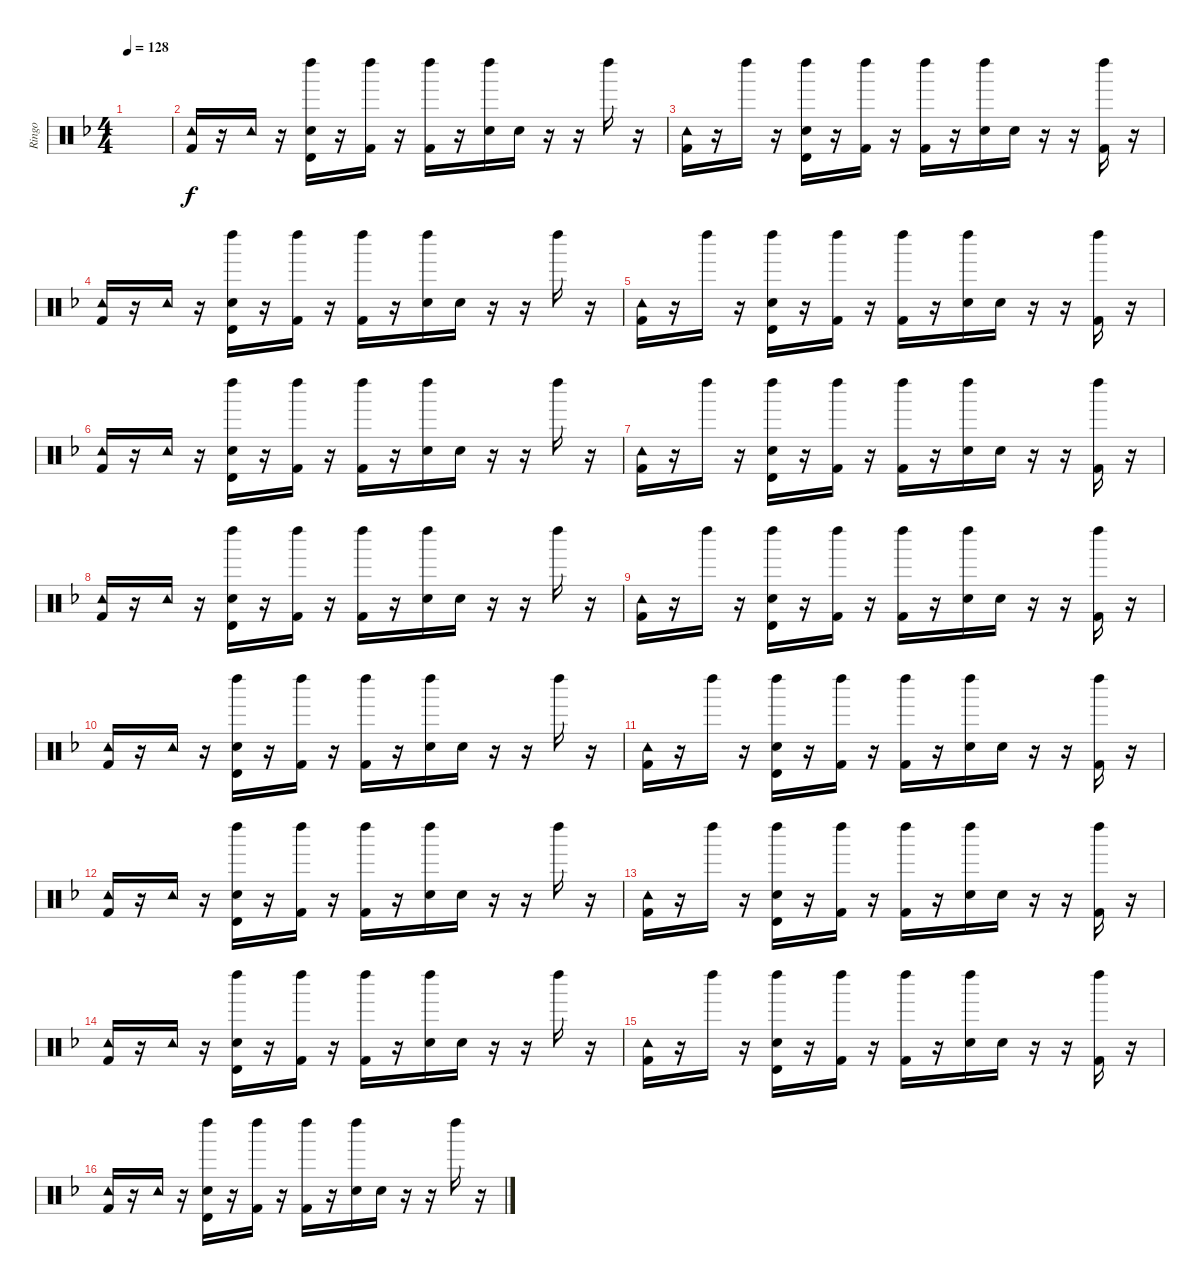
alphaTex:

\track ("Ringo" "Ringo") {instrument percussion}
\staff {score}
\articulation defaults
\ts (4 4)
\tempo 128
\clef neutral
\ks f
|
("Tambourine (hit)" "Kick (hit) 2").16 r.16 "Tambourine (hit)".16 r.16 ("Left Maraca (hit)" "Timbale high (hit)" "Electric Snare (hit)").16 r.16 ("Left Maraca (hit)" "Kick (hit) 2").16 r.16 ("Left Maraca (hit)" "Kick (hit) 2").16 r.16 ("Left Maraca (hit)" "Electric Snare (hit)").16 "Electric Snare (hit)".16 r.16 r.16 "Left Maraca (hit)".16 r.16 |
("Tambourine (hit)" "Kick (hit) 2").16 r.16 "Left Maraca (hit)".16 r.16 ("Left Maraca (hit)" "Timbale high (hit)" "Electric Snare (hit)").16 r.16 ("Left Maraca (hit)" "Kick (hit) 2").16 r.16 ("Left Maraca (hit)" "Kick (hit) 2").16 r.16 ("Left Maraca (hit)" "Electric Snare (hit)").16 "Electric Snare (hit)".16 r.16 r.16 ("Left Maraca (hit)" "Kick (hit) 2").16 r.16 |
("Tambourine (hit)" "Kick (hit) 2").16 r.16 "Tambourine (hit)".16 r.16 ("Left Maraca (hit)" "Timbale high (hit)" "Electric Snare (hit)").16 r.16 ("Left Maraca (hit)" "Kick (hit) 2").16 r.16 ("Left Maraca (hit)" "Kick (hit) 2").16 r.16 ("Left Maraca (hit)" "Electric Snare (hit)").16 "Electric Snare (hit)".16 r.16 r.16 "Left Maraca (hit)".16 r.16 |
("Tambourine (hit)" "Kick (hit) 2").16 r.16 "Left Maraca (hit)".16 r.16 ("Left Maraca (hit)" "Timbale high (hit)" "Electric Snare (hit)").16 r.16 ("Left Maraca (hit)" "Kick (hit) 2").16 r.16 ("Left Maraca (hit)" "Kick (hit) 2").16 r.16 ("Left Maraca (hit)" "Electric Snare (hit)").16 "Electric Snare (hit)".16 r.16 r.16 ("Left Maraca (hit)" "Kick (hit) 2").16 r.16 |
("Tambourine (hit)" "Kick (hit) 2").16 r.16 "Tambourine (hit)".16 r.16 ("Left Maraca (hit)" "Timbale high (hit)" "Electric Snare (hit)").16 r.16 ("Left Maraca (hit)" "Kick (hit) 2").16 r.16 ("Left Maraca (hit)" "Kick (hit) 2").16 r.16 ("Left Maraca (hit)" "Electric Snare (hit)").16 "Electric Snare (hit)".16 r.16 r.16 "Left Maraca (hit)".16 r.16 |
("Tambourine (hit)" "Kick (hit) 2").16 r.16 "Left Maraca (hit)".16 r.16 ("Left Maraca (hit)" "Timbale high (hit)" "Electric Snare (hit)").16 r.16 ("Left Maraca (hit)" "Kick (hit) 2").16 r.16 ("Left Maraca (hit)" "Kick (hit) 2").16 r.16 ("Left Maraca (hit)" "Electric Snare (hit)").16 "Electric Snare (hit)".16 r.16 r.16 ("Left Maraca (hit)" "Kick (hit) 2").16 r.16 |
("Tambourine (hit)" "Kick (hit) 2").16 r.16 "Tambourine (hit)".16 r.16 ("Left Maraca (hit)" "Timbale high (hit)" "Electric Snare (hit)").16 r.16 ("Left Maraca (hit)" "Kick (hit) 2").16 r.16 ("Left Maraca (hit)" "Kick (hit) 2").16 r.16 ("Left Maraca (hit)" "Electric Snare (hit)").16 "Electric Snare (hit)".16 r.16 r.16 "Left Maraca (hit)".16 r.16 |
("Tambourine (hit)" "Kick (hit) 2").16 r.16 "Left Maraca (hit)".16 r.16 ("Left Maraca (hit)" "Timbale high (hit)" "Electric Snare (hit)").16 r.16 ("Left Maraca (hit)" "Kick (hit) 2").16 r.16 ("Left Maraca (hit)" "Kick (hit) 2").16 r.16 ("Left Maraca (hit)" "Electric Snare (hit)").16 "Electric Snare (hit)".16 r.16 r.16 ("Left Maraca (hit)" "Kick (hit) 2").16 r.16 |
("Tambourine (hit)" "Kick (hit) 2").16 r.16 "Tambourine (hit)".16 r.16 ("Left Maraca (hit)" "Timbale high (hit)" "Electric Snare (hit)").16 r.16 ("Left Maraca (hit)" "Kick (hit) 2").16 r.16 ("Left Maraca (hit)" "Kick (hit) 2").16 r.16 ("Left Maraca (hit)" "Electric Snare (hit)").16 "Electric Snare (hit)".16 r.16 r.16 "Left Maraca (hit)".16 r.16 |
("Tambourine (hit)" "Kick (hit) 2").16 r.16 "Left Maraca (hit)".16 r.16 ("Left Maraca (hit)" "Timbale high (hit)" "Electric Snare (hit)").16 r.16 ("Left Maraca (hit)" "Kick (hit) 2").16 r.16 ("Left Maraca (hit)" "Kick (hit) 2").16 r.16 ("Left Maraca (hit)" "Electric Snare (hit)").16 "Electric Snare (hit)".16 r.16 r.16 ("Left Maraca (hit)" "Kick (hit) 2").16 r.16 |
("Tambourine (hit)" "Kick (hit) 2").16 r.16 "Tambourine (hit)".16 r.16 ("Left Maraca (hit)" "Timbale high (hit)" "Electric Snare (hit)").16 r.16 ("Left Maraca (hit)" "Kick (hit) 2").16 r.16 ("Left Maraca (hit)" "Kick (hit) 2").16 r.16 ("Left Maraca (hit)" "Electric Snare (hit)").16 "Electric Snare (hit)".16 r.16 r.16 "Left Maraca (hit)".16 r.16 |
("Tambourine (hit)" "Kick (hit) 2").16 r.16 "Left Maraca (hit)".16 r.16 ("Left Maraca (hit)" "Timbale high (hit)" "Electric Snare (hit)").16 r.16 ("Left Maraca (hit)" "Kick (hit) 2").16 r.16 ("Left Maraca (hit)" "Kick (hit) 2").16 r.16 ("Left Maraca (hit)" "Electric Snare (hit)").16 "Electric Snare (hit)".16 r.16 r.16 ("Left Maraca (hit)" "Kick (hit) 2").16 r.16 |
("Tambourine (hit)" "Kick (hit) 2").16 r.16 "Tambourine (hit)".16 r.16 ("Left Maraca (hit)" "Timbale high (hit)" "Electric Snare (hit)").16 r.16 ("Left Maraca (hit)" "Kick (hit) 2").16 r.16 ("Left Maraca (hit)" "Kick (hit) 2").16 r.16 ("Left Maraca (hit)" "Electric Snare (hit)").16 "Electric Snare (hit)".16 r.16 r.16 "Left Maraca (hit)".16 r.16 |
("Tambourine (hit)" "Kick (hit) 2").16 r.16 "Left Maraca (hit)".16 r.16 ("Left Maraca (hit)" "Timbale high (hit)" "Electric Snare (hit)").16 r.16 ("Left Maraca (hit)" "Kick (hit) 2").16 r.16 ("Left Maraca (hit)" "Kick (hit) 2").16 r.16 ("Left Maraca (hit)" "Electric Snare (hit)").16 "Electric Snare (hit)".16 r.16 r.16 ("Left Maraca (hit)" "Kick (hit) 2").16 r.16 |
("Tambourine (hit)" "Kick (hit) 2").16 r.16 "Tambourine (hit)".16 r.16 ("Left Maraca (hit)" "Timbale high (hit)" "Electric Snare (hit)").16 r.16 ("Left Maraca (hit)" "Kick (hit) 2").16 r.16 ("Left Maraca (hit)" "Kick (hit) 2").16 r.16 ("Left Maraca (hit)" "Electric Snare (hit)").16 "Electric Snare (hit)".16 r.16 r.16 "Left Maraca (hit)".16 r.16
